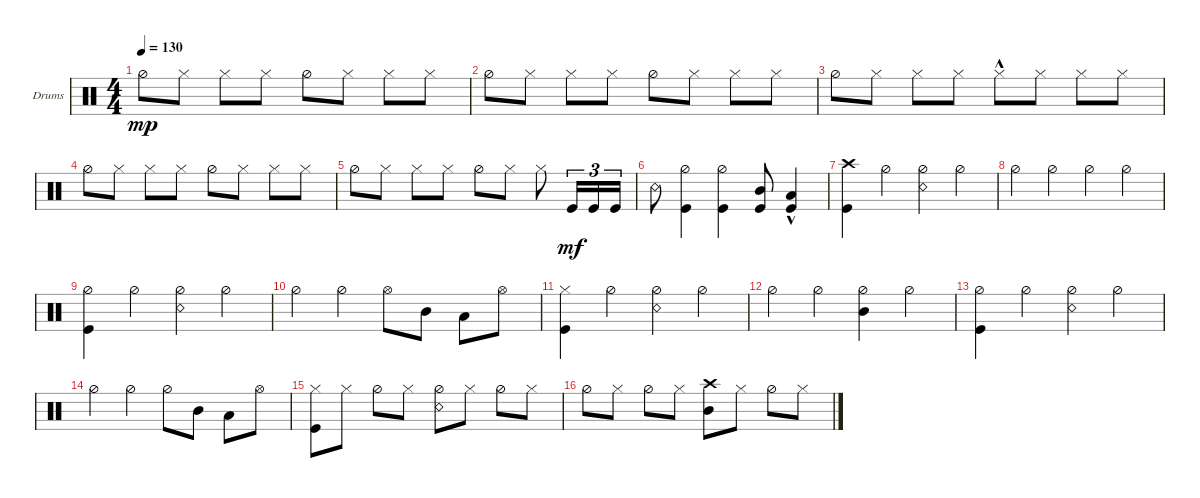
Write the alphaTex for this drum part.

\defaultSystemsLayout 4
\bracketExtendMode groupsimilarinstruments
\firstSystemTrackNameOrientation horizontal
\otherSystemsTrackNameOrientation horizontal
\track ("Drumkit" "Drums") {instrument percussion}
\staff {score}
\articulation defaults
\ts (4 4)
\tempo 130
\clef neutral
\ks c "Hi-Hat (half)".8{dy mp} "Hi-Hat (closed)".8 "Hi-Hat (closed)".8 "Hi-Hat (closed)".8 "Hi-Hat (half)".8 "Hi-Hat (closed)".8 "Hi-Hat (closed)".8 "Hi-Hat (closed)".8
|
"Hi-Hat (half)".8 "Hi-Hat (closed)".8 "Hi-Hat (closed)".8 "Hi-Hat (closed)".8 "Hi-Hat (half)".8 "Hi-Hat (closed)".8 "Hi-Hat (closed)".8 "Hi-Hat (closed)".8 |
"Hi-Hat (half)".8 "Hi-Hat (closed)".8 "Hi-Hat (closed)".8 "Hi-Hat (closed)".8 "Hi-Hat (closed)"{hac}.8 "Hi-Hat (closed)".8 "Hi-Hat (closed)".8 "Hi-Hat (closed)".8 |
"Hi-Hat (half)".8 "Hi-Hat (closed)".8 "Hi-Hat (closed)".8 "Hi-Hat (closed)".8 "Hi-Hat (half)".8 "Hi-Hat (closed)".8 "Hi-Hat (closed)".8 "Hi-Hat (closed)".8 |
"Hi-Hat (half)".8 "Hi-Hat (closed)".8 "Hi-Hat (closed)".8 "Hi-Hat (closed)".8 "Hi-Hat (half)".8 "Hi-Hat (closed)".8 "Hi-Hat (closed)".8 "Kick (hit)".16{tu (3 2) dy mf} "Kick (hit)".16{tu (3 2)} "Kick (hit)".16{tu (3 2)} |
"Snare (rim shot)".8 ("Kick (hit)" "Hi-Hat (half)").4 ("Kick (hit)" "Hi-Hat (half)").4 ("Kick (hit)" "Mid Tom (hit)").8 ("Kick (hit)" "Low Tom (hit)"{hac}).4 |
("Kick (hit)" "Crash high (hit)").4 "Hi-Hat (half)".4 ("Hi-Hat (half)" "Snare (rim shot)").4 "Hi-Hat (half)".4 |
"Hi-Hat (half)".4 "Hi-Hat (half)".4 "Hi-Hat (half)".4 "Hi-Hat (half)".4 |
("Kick (hit)" "Hi-Hat (half)").4 "Hi-Hat (half)".4 ("Hi-Hat (half)" "Snare (rim shot)").4 "Hi-Hat (half)".4 |
"Hi-Hat (half)".4 "Hi-Hat (half)".4 "Hi-Hat (open)".8 "Mid Tom (hit)".8 "Low Tom (hit)".8 "Hi-Hat (open)".8 |
("Kick (hit)" "Hi-Hat (closed)").4 "Hi-Hat (half)".4 ("Hi-Hat (half)" "Snare (rim shot)").4 "Hi-Hat (half)".4 |
"Hi-Hat (half)".4 "Hi-Hat (half)".4 ("Mid Tom (hit)" "Hi-Hat (half)").4 "Hi-Hat (half)".4 |
("Kick (hit)" "Hi-Hat (half)").4 "Hi-Hat (half)".4 ("Hi-Hat (half)" "Snare (rim shot)").4 "Hi-Hat (half)".4 |
"Hi-Hat (half)".4 "Hi-Hat (half)".4 "Hi-Hat (half)".8 "Mid Tom (hit)".8 "Low Tom (hit)".8 "Hi-Hat (open)".8 |
("Hi-Hat (closed)" "Kick (hit)").8 "Hi-Hat (closed)".8 "Hi-Hat (half)".8 "Hi-Hat (closed)".8 ("Hi-Hat (half)" "Snare (rim shot)").8 "Hi-Hat (closed)".8 "Hi-Hat (half)".8 "Hi-Hat (closed)".8 |
"Hi-Hat (half)".8 "Hi-Hat (closed)".8 "Hi-Hat (half)".8 "Hi-Hat (closed)".8 ("Mid Tom (hit)" "Crash high (hit)").8 "Hi-Hat (closed)".8 "Hi-Hat (half)".8 "Hi-Hat (closed)".8
